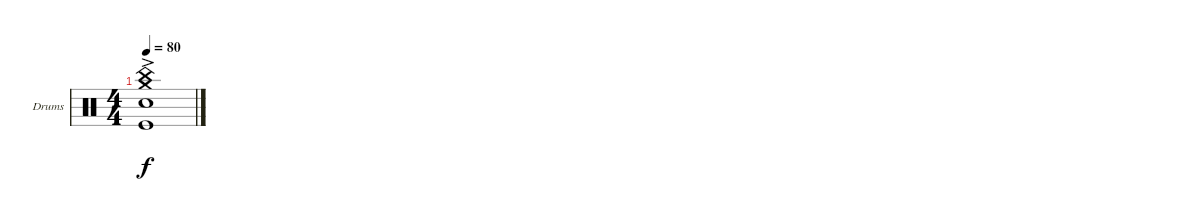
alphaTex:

\bracketExtendMode groupsimilarinstruments
\firstSystemTrackNameOrientation horizontal
\otherSystemsTrackNameOrientation horizontal
\track ("Drumkit" "Drums") {instrument percussion}
\staff {score}
\articulation defaults
\ts (4 4)
\tempo 80
\clef neutral
\ks c
("Crash medium (hit)"{ac} "China (hit)"{ac} "Snare (hit) 2"{ac} "Kick (hit)").1{dy f}
